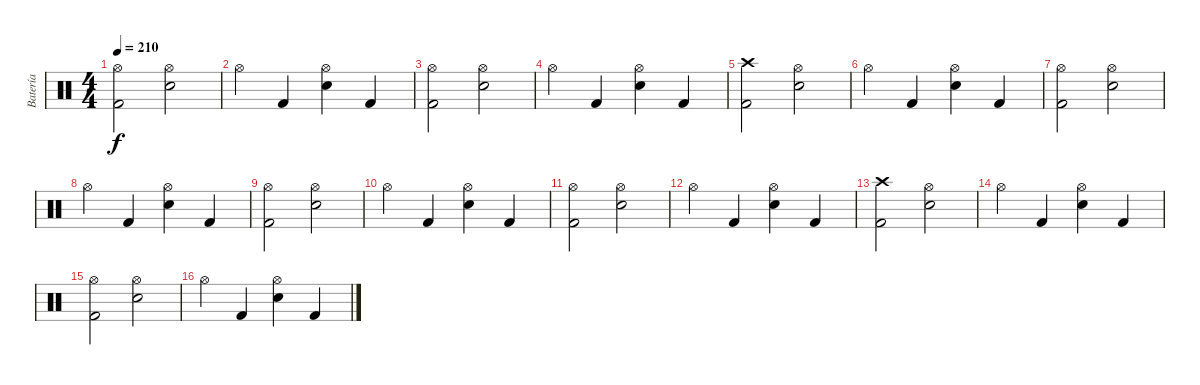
\track ("Batería" "Batería") {instrument percussion}
\staff {score}
\articulation defaults
\ts (4 4)
\tempo 210
\clef neutral
\ks c
("Hi-Hat (open)" "Kick (hit) 2").2{dy f} ("Hi-Hat (open)" "Snare (hit) 2").2 |
"Hi-Hat (open)".4 "Kick (hit) 2".4 ("Hi-Hat (open)" "Snare (hit) 2").4 "Kick (hit) 2".4 |
("Hi-Hat (open)" "Kick (hit) 2").2 ("Hi-Hat (open)" "Snare (hit) 2").2 |
"Hi-Hat (open)".4 "Kick (hit) 2".4 ("Hi-Hat (open)" "Snare (hit) 2").4 "Kick (hit) 2".4 |
("Crash high (hit)" "Kick (hit) 2").2 ("Hi-Hat (open)" "Snare (hit) 2").2 |
"Hi-Hat (open)".4 "Kick (hit) 2".4 ("Hi-Hat (open)" "Snare (hit) 2").4 "Kick (hit) 2".4 |
("Hi-Hat (open)" "Kick (hit) 2").2 ("Hi-Hat (open)" "Snare (hit) 2").2 |
"Hi-Hat (open)".4 "Kick (hit) 2".4 ("Hi-Hat (open)" "Snare (hit) 2").4 "Kick (hit) 2".4 |
("Hi-Hat (open)" "Kick (hit) 2").2 ("Hi-Hat (open)" "Snare (hit) 2").2 |
"Hi-Hat (open)".4 "Kick (hit) 2".4 ("Hi-Hat (open)" "Snare (hit) 2").4 "Kick (hit) 2".4 |
("Hi-Hat (open)" "Kick (hit) 2").2 ("Hi-Hat (open)" "Snare (hit) 2").2 |
"Hi-Hat (open)".4 "Kick (hit) 2".4 ("Hi-Hat (open)" "Snare (hit) 2").4 "Kick (hit) 2".4 |
("Crash high (hit)" "Kick (hit) 2").2 ("Hi-Hat (open)" "Snare (hit) 2").2 |
"Hi-Hat (open)".4 "Kick (hit) 2".4 ("Hi-Hat (open)" "Snare (hit) 2").4 "Kick (hit) 2".4 |
("Hi-Hat (open)" "Kick (hit) 2").2 ("Hi-Hat (open)" "Snare (hit) 2").2 |
"Hi-Hat (open)".4 "Kick (hit) 2".4 ("Hi-Hat (open)" "Snare (hit) 2").4 "Kick (hit) 2".4
